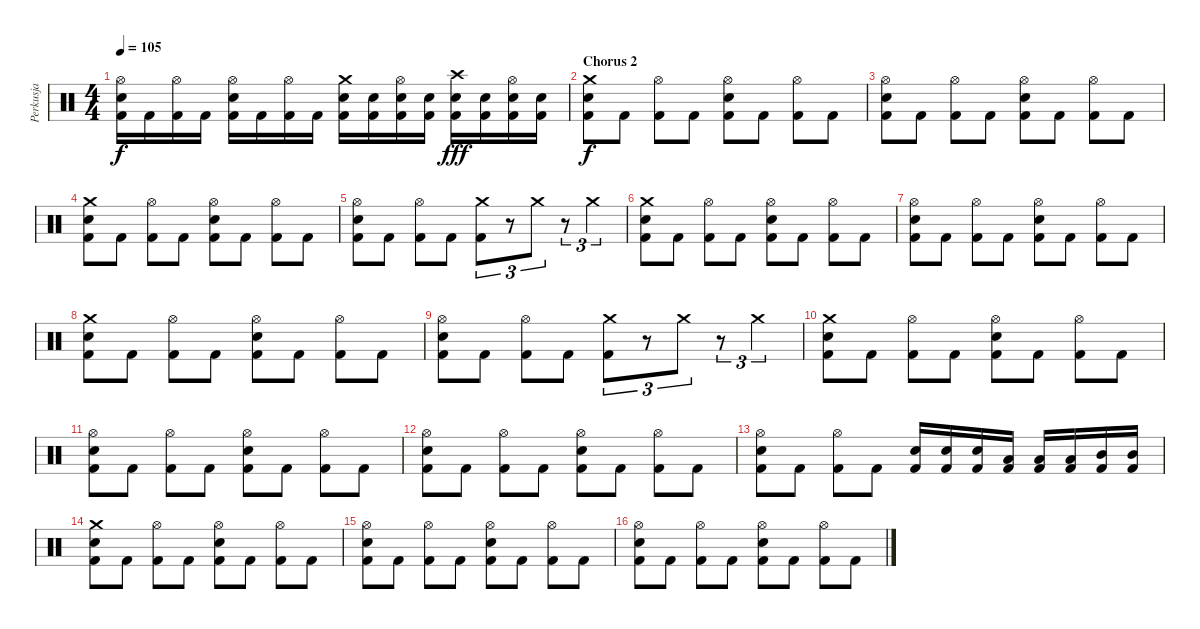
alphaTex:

\track ("Perkusja" "Perkusja") {instrument percussion}
\staff {score}
\articulation defaults
\ts (4 4)
\tempo 105
\clef neutral
\ks c
("Kick (hit) 2" "Snare (hit) 2" "Hi-Hat (open)").16{dy f} "Kick (hit) 2".16 ("Kick (hit) 2" "Hi-Hat (open)").16 "Kick (hit) 2".16 ("Kick (hit) 2" "Snare (hit) 2" "Hi-Hat (open)").16 "Kick (hit) 2".16 ("Kick (hit) 2" "Hi-Hat (open)").16 "Kick (hit) 2".16 ("Kick (hit) 2" "Snare (hit) 2" "Crash medium (hit)").16 ("Kick (hit) 2" "Snare (hit) 2").16 ("Kick (hit) 2" "Snare (hit) 2" "Hi-Hat (open)").16 ("Kick (hit) 2" "Snare (hit) 2").16 ("Kick (hit) 2" "Electric Snare (hit)" "Crash high (hit)").16{dy fff} ("Kick (hit) 2" "Electric Snare (hit)").16 ("Kick (hit) 2" "Electric Snare (hit)" "Hi-Hat (open)").16 ("Kick (hit) 2" "Electric Snare (hit)").16 |
\section ("" "Chorus 2")
("Kick (hit) 2" "Snare (hit) 2" "Crash medium (hit)").8{dy f} "Kick (hit) 2".8 ("Kick (hit) 2" "Hi-Hat (open)").8 "Kick (hit) 2".8 ("Kick (hit) 2" "Snare (hit) 2" "Hi-Hat (open)").8 "Kick (hit) 2".8 ("Kick (hit) 2" "Hi-Hat (open)").8 "Kick (hit) 2".8 |
("Kick (hit) 2" "Snare (hit) 2" "Hi-Hat (open)").8 "Kick (hit) 2".8 ("Kick (hit) 2" "Hi-Hat (open)").8 "Kick (hit) 2".8 ("Kick (hit) 2" "Snare (hit) 2" "Hi-Hat (open)").8 "Kick (hit) 2".8 ("Kick (hit) 2" "Hi-Hat (open)").8 "Kick (hit) 2".8 |
("Kick (hit) 2" "Snare (hit) 2" "Crash medium (hit)").8 "Kick (hit) 2".8 ("Kick (hit) 2" "Hi-Hat (open)").8 "Kick (hit) 2".8 ("Kick (hit) 2" "Snare (hit) 2" "Hi-Hat (open)").8 "Kick (hit) 2".8 ("Kick (hit) 2" "Hi-Hat (open)").8 "Kick (hit) 2".8 |
("Kick (hit) 2" "Snare (hit) 2" "Hi-Hat (open)").8 "Kick (hit) 2".8 ("Kick (hit) 2" "Hi-Hat (open)").8 "Kick (hit) 2".8 ("Kick (hit) 2" "Crash medium (hit)").8{tu (3 2)} r.8{tu (3 2)} "Crash medium (hit)".8{tu (3 2)} r.8{tu (3 2)} "Crash medium (hit)".4{tu (3 2)} |
("Kick (hit) 2" "Snare (hit) 2" "Crash medium (hit)").8 "Kick (hit) 2".8 ("Kick (hit) 2" "Hi-Hat (open)").8 "Kick (hit) 2".8 ("Kick (hit) 2" "Snare (hit) 2" "Hi-Hat (open)").8 "Kick (hit) 2".8 ("Kick (hit) 2" "Hi-Hat (open)").8 "Kick (hit) 2".8 |
("Kick (hit) 2" "Snare (hit) 2" "Hi-Hat (open)").8 "Kick (hit) 2".8 ("Kick (hit) 2" "Hi-Hat (open)").8 "Kick (hit) 2".8 ("Kick (hit) 2" "Snare (hit) 2" "Hi-Hat (open)").8 "Kick (hit) 2".8 ("Kick (hit) 2" "Hi-Hat (open)").8 "Kick (hit) 2".8 |
("Kick (hit) 2" "Snare (hit) 2" "Crash medium (hit)").8 "Kick (hit) 2".8 ("Kick (hit) 2" "Hi-Hat (open)").8 "Kick (hit) 2".8 ("Kick (hit) 2" "Snare (hit) 2" "Hi-Hat (open)").8 "Kick (hit) 2".8 ("Kick (hit) 2" "Hi-Hat (open)").8 "Kick (hit) 2".8 |
("Kick (hit) 2" "Snare (hit) 2" "Hi-Hat (open)").8 "Kick (hit) 2".8 ("Kick (hit) 2" "Hi-Hat (open)").8 "Kick (hit) 2".8 ("Kick (hit) 2" "Crash medium (hit)").8{tu (3 2)} r.8{tu (3 2)} "Crash medium (hit)".8{tu (3 2)} r.8{tu (3 2)} "Crash medium (hit)".4{tu (3 2)} |
("Kick (hit) 2" "Snare (hit) 2" "Crash medium (hit)").8 "Kick (hit) 2".8 ("Kick (hit) 2" "Hi-Hat (open)").8 "Kick (hit) 2".8 ("Kick (hit) 2" "Snare (hit) 2" "Hi-Hat (open)").8 "Kick (hit) 2".8 ("Kick (hit) 2" "Hi-Hat (open)").8 "Kick (hit) 2".8 |
("Kick (hit) 2" "Snare (hit) 2" "Hi-Hat (open)").8 "Kick (hit) 2".8 ("Kick (hit) 2" "Hi-Hat (open)").8 "Kick (hit) 2".8 ("Kick (hit) 2" "Snare (hit) 2" "Hi-Hat (open)").8 "Kick (hit) 2".8 ("Kick (hit) 2" "Hi-Hat (open)").8 "Kick (hit) 2".8 |
("Kick (hit) 2" "Snare (hit) 2" "Hi-Hat (open)").8 "Kick (hit) 2".8 ("Kick (hit) 2" "Hi-Hat (open)").8 "Kick (hit) 2".8 ("Kick (hit) 2" "Snare (hit) 2" "Hi-Hat (open)").8 "Kick (hit) 2".8 ("Kick (hit) 2" "Hi-Hat (open)").8 "Kick (hit) 2".8 |
("Kick (hit) 2" "Snare (hit) 2" "Hi-Hat (open)").8 "Kick (hit) 2".8 ("Kick (hit) 2" "Hi-Hat (open)").8 "Kick (hit) 2".8 ("Kick (hit) 2" "Snare (hit) 2").16 ("Kick (hit) 2" "Snare (hit) 2").16 ("Kick (hit) 2" "Snare (hit) 2").16 ("Kick (hit) 2" "Low Tom (hit)").16 ("Kick (hit) 2" "Low Tom (hit)").16 ("Kick (hit) 2" "Low Tom (hit)").16 ("Kick (hit) 2" "Mid Tom (hit)").16 ("Kick (hit) 2" "Mid Tom (hit)").16 |
("Kick (hit) 2" "Snare (hit) 2" "Crash medium (hit)").8 "Kick (hit) 2".8 ("Kick (hit) 2" "Hi-Hat (open)").8 "Kick (hit) 2".8 ("Kick (hit) 2" "Snare (hit) 2" "Hi-Hat (open)").8 "Kick (hit) 2".8 ("Kick (hit) 2" "Hi-Hat (open)").8 "Kick (hit) 2".8 |
("Kick (hit) 2" "Snare (hit) 2" "Hi-Hat (open)").8 "Kick (hit) 2".8 ("Kick (hit) 2" "Hi-Hat (open)").8 "Kick (hit) 2".8 ("Kick (hit) 2" "Snare (hit) 2" "Hi-Hat (open)").8 "Kick (hit) 2".8 ("Kick (hit) 2" "Hi-Hat (open)").8 "Kick (hit) 2".8 |
("Kick (hit) 2" "Snare (hit) 2" "Hi-Hat (open)").8 "Kick (hit) 2".8 ("Kick (hit) 2" "Hi-Hat (open)").8 "Kick (hit) 2".8 ("Kick (hit) 2" "Snare (hit) 2" "Hi-Hat (open)").8 "Kick (hit) 2".8 ("Kick (hit) 2" "Hi-Hat (open)").8 "Kick (hit) 2".8
